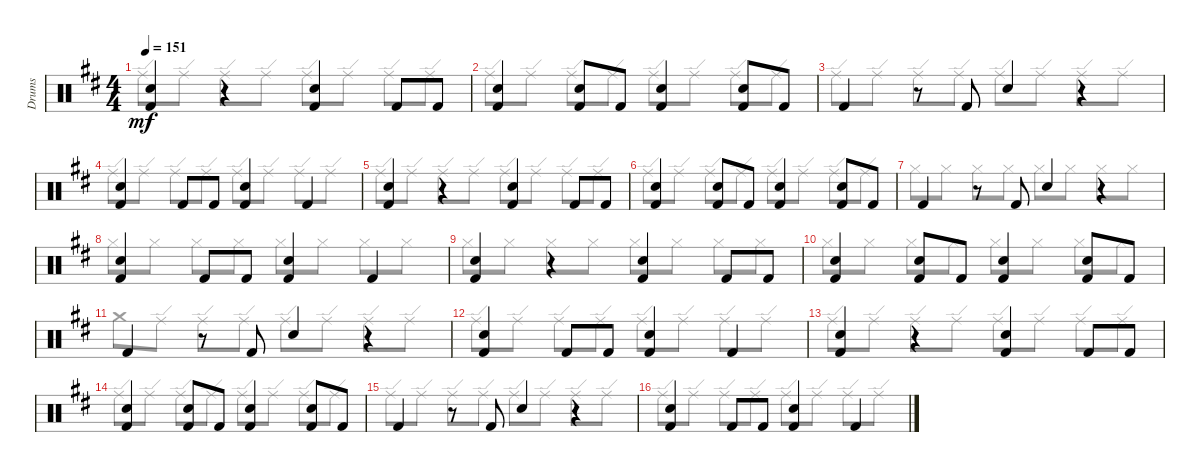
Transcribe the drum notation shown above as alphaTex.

\bracketExtendMode groupsimilarinstruments
\track ("Drumkit" "Drums") {instrument percussion}
\staff {score}
\articulation defaults
\voice
\ts (4 4)
\tempo 151
\clef neutral
\ks d
("Kick (hit) 2"{acc forcenatural} "Snare (hit) 2"{acc forcenatural}).4{dy mf} r.4 ("Kick (hit) 2"{acc forcenatural} "Snare (hit) 2"{acc forcenatural}).4 "Kick (hit) 2"{acc forcenatural}.8 "Kick (hit) 2"{acc forcenatural}.8 |
("Kick (hit) 2"{acc forcenatural} "Snare (hit) 2"{acc forcenatural}).4 ("Kick (hit) 2"{acc forcenatural} "Snare (hit) 2"{acc forcenatural}).8 "Kick (hit) 2"{acc forcenatural}.8 ("Kick (hit) 2"{acc forcenatural} "Snare (hit) 2"{acc forcenatural}).4 ("Kick (hit) 2"{acc forcenatural} "Snare (hit) 2"{acc forcenatural}).8 "Kick (hit) 2"{acc forcenatural}.8 |
"Kick (hit) 2"{acc forcenatural}.4 r.8 "Kick (hit) 2"{acc forcenatural}.8 "Snare (hit) 2"{acc forcenatural}.4 r.4 |
("Kick (hit) 2"{acc forcenatural} "Snare (hit) 2"{acc forcenatural}).4 "Kick (hit) 2"{acc forcenatural}.8 "Kick (hit) 2"{acc forcenatural}.8 ("Kick (hit) 2"{acc forcenatural} "Snare (hit) 2"{acc forcenatural}).4 "Kick (hit) 2"{acc forcenatural}.4 |
("Kick (hit) 2"{acc forcenatural} "Snare (hit) 2"{acc forcenatural}).4 r.4 ("Kick (hit) 2"{acc forcenatural} "Snare (hit) 2"{acc forcenatural}).4 "Kick (hit) 2"{acc forcenatural}.8 "Kick (hit) 2"{acc forcenatural}.8 |
("Kick (hit) 2"{acc forcenatural} "Snare (hit) 2"{acc forcenatural}).4 ("Kick (hit) 2"{acc forcenatural} "Snare (hit) 2"{acc forcenatural}).8 "Kick (hit) 2"{acc forcenatural}.8 ("Kick (hit) 2"{acc forcenatural} "Snare (hit) 2"{acc forcenatural}).4 ("Kick (hit) 2"{acc forcenatural} "Snare (hit) 2"{acc forcenatural}).8 "Kick (hit) 2"{acc forcenatural}.8 |
"Kick (hit) 2"{acc forcenatural}.4 r.8 "Kick (hit) 2"{acc forcenatural}.8 "Snare (hit) 2"{acc forcenatural}.4 r.4 |
("Kick (hit) 2"{acc forcenatural} "Snare (hit) 2"{acc forcenatural}).4 "Kick (hit) 2"{acc forcenatural}.8 "Kick (hit) 2"{acc forcenatural}.8 ("Kick (hit) 2"{acc forcenatural} "Snare (hit) 2"{acc forcenatural}).4 "Kick (hit) 2"{acc forcenatural}.4 |
("Kick (hit) 2"{acc forcenatural} "Snare (hit) 2"{acc forcenatural}).4 r.4 ("Kick (hit) 2"{acc forcenatural} "Snare (hit) 2"{acc forcenatural}).4 "Kick (hit) 2"{acc forcenatural}.8 "Kick (hit) 2"{acc forcenatural}.8 |
("Kick (hit) 2"{acc forcenatural} "Snare (hit) 2"{acc forcenatural}).4 ("Kick (hit) 2"{acc forcenatural} "Snare (hit) 2"{acc forcenatural}).8 "Kick (hit) 2"{acc forcenatural}.8 ("Kick (hit) 2"{acc forcenatural} "Snare (hit) 2"{acc forcenatural}).4 ("Kick (hit) 2"{acc forcenatural} "Snare (hit) 2"{acc forcenatural}).8 "Kick (hit) 2"{acc forcenatural}.8 |
"Kick (hit) 2"{acc forcenatural}.4 r.8 "Kick (hit) 2"{acc forcenatural}.8 "Snare (hit) 2"{acc forcenatural}.4 r.4 |
("Kick (hit) 2"{acc forcenatural} "Snare (hit) 2"{acc forcenatural}).4 "Kick (hit) 2"{acc forcenatural}.8 "Kick (hit) 2"{acc forcenatural}.8 ("Kick (hit) 2"{acc forcenatural} "Snare (hit) 2"{acc forcenatural}).4 "Kick (hit) 2"{acc forcenatural}.4 |
("Kick (hit) 2"{acc forcenatural} "Snare (hit) 2"{acc forcenatural}).4 r.4 ("Kick (hit) 2"{acc forcenatural} "Snare (hit) 2"{acc forcenatural}).4 "Kick (hit) 2"{acc forcenatural}.8 "Kick (hit) 2"{acc forcenatural}.8 |
("Kick (hit) 2"{acc forcenatural} "Snare (hit) 2"{acc forcenatural}).4 ("Kick (hit) 2"{acc forcenatural} "Snare (hit) 2"{acc forcenatural}).8 "Kick (hit) 2"{acc forcenatural}.8 ("Kick (hit) 2"{acc forcenatural} "Snare (hit) 2"{acc forcenatural}).4 ("Kick (hit) 2"{acc forcenatural} "Snare (hit) 2"{acc forcenatural}).8 "Kick (hit) 2"{acc forcenatural}.8 |
"Kick (hit) 2"{acc forcenatural}.4 r.8 "Kick (hit) 2"{acc forcenatural}.8 "Snare (hit) 2"{acc forcenatural}.4 r.4 |
("Kick (hit) 2"{acc forcenatural} "Snare (hit) 2"{acc forcenatural}).4 "Kick (hit) 2"{acc forcenatural}.8 "Kick (hit) 2"{acc forcenatural}.8 ("Kick (hit) 2"{acc forcenatural} "Snare (hit) 2"{acc forcenatural}).4 "Kick (hit) 2"{acc forcenatural}.4
\voice
\clef neutral
\ottava regular
\simile none
\ks d "Ride (edge)"{acc forcenatural}.8{dy mf} "Ride (edge)"{acc forcenatural}.8 "Ride (edge)"{acc forcenatural}.8 "Ride (edge)"{acc forcenatural}.8 "Ride (edge)"{acc forcenatural}.8 "Ride (edge)"{acc forcenatural}.8 "Ride (edge)"{acc forcenatural}.8 "Ride (edge)"{acc forcenatural}.8
|
"Ride (edge)"{acc forcenatural}.8 "Ride (edge)"{acc forcenatural}.8 "Ride (edge)"{acc forcenatural}.8 "Ride (edge)"{acc forcenatural}.8 "Ride (edge)"{acc forcenatural}.8 "Ride (edge)"{acc forcenatural}.8 "Ride (edge)"{acc forcenatural}.8 "Ride (edge)"{acc forcenatural}.8 |
"Ride (edge)"{acc forcenatural}.8 "Ride (edge)"{acc forcenatural}.8 "Ride (edge)"{acc forcenatural}.8 "Ride (edge)"{acc forcenatural}.8 "Ride (edge)"{acc forcenatural}.8 "Ride (edge)"{acc forcenatural}.8 "Ride (edge)"{acc forcenatural}.8 "Ride (edge)"{acc forcenatural}.8 |
"Ride (edge)"{acc forcenatural}.8 "Ride (edge)"{acc forcenatural}.8 "Ride (edge)"{acc forcenatural}.8 "Ride (edge)"{acc forcenatural}.8 "Ride (edge)"{acc forcenatural}.8 "Ride (edge)"{acc forcenatural}.8 "Ride (edge)"{acc forcenatural}.8 "Ride (edge)"{acc forcenatural}.8 |
"Ride (edge)"{acc forcenatural}.8 "Ride (edge)"{acc forcenatural}.8 "Ride (edge)"{acc forcenatural}.8 "Ride (edge)"{acc forcenatural}.8 "Ride (edge)"{acc forcenatural}.8 "Ride (edge)"{acc forcenatural}.8 "Ride (edge)"{acc forcenatural}.8 "Ride (edge)"{acc forcenatural}.8 |
"Ride (edge)"{acc forcenatural}.8 "Ride (edge)"{acc forcenatural}.8 "Ride (edge)"{acc forcenatural}.8 "Ride (edge)"{acc forcenatural}.8 "Ride (edge)"{acc forcenatural}.8 "Ride (edge)"{acc forcenatural}.8 "Ride (edge)"{acc forcenatural}.8 "Ride (edge)"{acc forcenatural}.8 |
"Hi-Hat (closed)"{acc forcenatural}.8 "Hi-Hat (closed)"{acc forcenatural}.8 "Hi-Hat (closed)"{acc forcenatural}.8 "Hi-Hat (closed)"{acc forcenatural}.8 "Hi-Hat (closed)"{acc forcenatural}.8 "Hi-Hat (closed)"{acc forcenatural}.8 "Hi-Hat (closed)"{acc forcenatural}.8 "Hi-Hat (closed)"{acc forcenatural}.8 |
"Hi-Hat (closed)"{acc forcenatural}.8 "Hi-Hat (closed)"{acc forcenatural}.8 "Hi-Hat (closed)"{acc forcenatural}.8 "Hi-Hat (closed)"{acc forcenatural}.8 "Hi-Hat (closed)"{acc forcenatural}.8 "Hi-Hat (closed)"{acc forcenatural}.8 "Hi-Hat (closed)"{acc forcenatural}.8 "Hi-Hat (closed)"{acc forcenatural}.8 |
"Hi-Hat (closed)"{acc forcenatural}.8 "Hi-Hat (closed)"{acc forcenatural}.8 "Hi-Hat (closed)"{acc forcenatural}.8 "Hi-Hat (closed)"{acc forcenatural}.8 "Hi-Hat (closed)"{acc forcenatural}.8 "Hi-Hat (closed)"{acc forcenatural}.8 "Hi-Hat (closed)"{acc forcenatural}.8 "Hi-Hat (closed)"{acc forcenatural}.8 |
"Hi-Hat (closed)"{acc forcenatural}.8 "Hi-Hat (closed)"{acc forcenatural}.8 "Hi-Hat (closed)"{acc forcenatural}.8 "Hi-Hat (closed)"{acc forcenatural}.8 "Hi-Hat (closed)"{acc forcenatural}.8 "Hi-Hat (closed)"{acc forcenatural}.8 "Hi-Hat (closed)"{acc forcenatural}.8 "Hi-Hat (closed)"{acc forcenatural}.8 |
"Crash medium (hit)"{acc forcenatural}.8 "Ride (edge)"{acc forcenatural}.8 "Ride (edge)"{acc forcenatural}.8 "Ride (edge)"{acc forcenatural}.8 "Ride (edge)"{acc forcenatural}.8 "Ride (edge)"{acc forcenatural}.8 "Ride (edge)"{acc forcenatural}.8 "Ride (edge)"{acc forcenatural}.8 |
"Ride (edge)"{acc forcenatural}.8 "Ride (edge)"{acc forcenatural}.8 "Ride (edge)"{acc forcenatural}.8 "Ride (edge)"{acc forcenatural}.8 "Ride (edge)"{acc forcenatural}.8 "Ride (edge)"{acc forcenatural}.8 "Ride (edge)"{acc forcenatural}.8 "Ride (edge)"{acc forcenatural}.8 |
"Ride (edge)"{acc forcenatural}.8 "Ride (edge)"{acc forcenatural}.8 "Ride (edge)"{acc forcenatural}.8 "Ride (edge)"{acc forcenatural}.8 "Ride (edge)"{acc forcenatural}.8 "Ride (edge)"{acc forcenatural}.8 "Ride (edge)"{acc forcenatural}.8 "Ride (edge)"{acc forcenatural}.8 |
"Ride (edge)"{acc forcenatural}.8 "Ride (edge)"{acc forcenatural}.8 "Ride (edge)"{acc forcenatural}.8 "Ride (edge)"{acc forcenatural}.8 "Ride (edge)"{acc forcenatural}.8 "Ride (edge)"{acc forcenatural}.8 "Ride (edge)"{acc forcenatural}.8 "Ride (edge)"{acc forcenatural}.8 |
"Ride (edge)"{acc forcenatural}.8 "Ride (edge)"{acc forcenatural}.8 "Ride (edge)"{acc forcenatural}.8 "Ride (edge)"{acc forcenatural}.8 "Ride (edge)"{acc forcenatural}.8 "Ride (edge)"{acc forcenatural}.8 "Ride (edge)"{acc forcenatural}.8 "Ride (edge)"{acc forcenatural}.8 |
"Ride (edge)"{acc forcenatural}.8 "Ride (edge)"{acc forcenatural}.8 "Ride (edge)"{acc forcenatural}.8 "Ride (edge)"{acc forcenatural}.8 "Ride (edge)"{acc forcenatural}.8 "Ride (edge)"{acc forcenatural}.8 "Ride (edge)"{acc forcenatural}.8 "Ride (edge)"{acc forcenatural}.8
